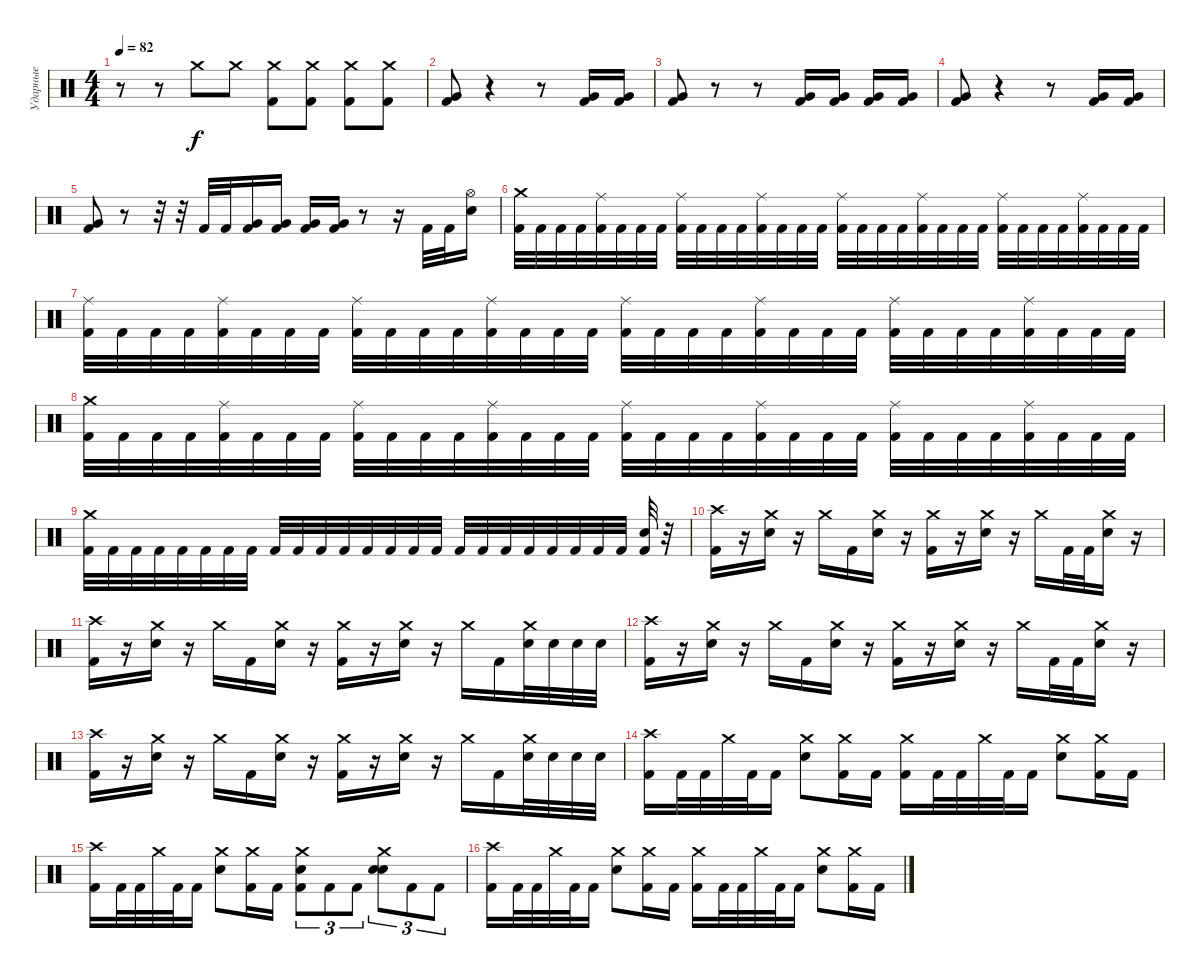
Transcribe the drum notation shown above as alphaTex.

\track ("Ударные" "Ударные") {instrument percussion}
\staff {score}
\articulation defaults
\ts (4 4)
\tempo 82
\clef neutral
\ks c
r.8{dy f} r.8 "Crash medium (hit)".8 "Crash medium (hit)".8 ("Kick (hit) 2" "Crash medium (hit)").8 ("Kick (hit) 2" "Crash medium (hit)").8 ("Kick (hit) 2" "Crash medium (hit)").8 ("Kick (hit) 2" "Crash medium (hit)").8 |
("Very Low Tom (hit)" "Kick (hit) 2").8 r.4 r.8 ("Very Low Tom (hit)" "Kick (hit) 2").16 ("Very Low Tom (hit)" "Kick (hit) 2").16 |
("Very Low Tom (hit)" "Kick (hit) 2").8 r.8 r.8 ("Very Low Tom (hit)" "Kick (hit) 2").16 ("Very Low Tom (hit)" "Kick (hit) 2").16 ("Very Low Tom (hit)" "Kick (hit) 2").16 ("Very Low Tom (hit)" "Kick (hit) 2").16 |
("Very Low Tom (hit)" "Kick (hit) 2").8 r.4 r.8 ("Very Low Tom (hit)" "Kick (hit) 2").16 ("Very Low Tom (hit)" "Kick (hit) 2").16 |
("Very Low Tom (hit)" "Kick (hit) 2").8 r.8 r.32 r.32 "Kick (hit) 2".32 "Kick (hit) 2".32 ("Very Low Tom (hit)" "Kick (hit) 2").16 ("Very Low Tom (hit)" "Kick (hit) 2").16 ("Very Low Tom (hit)" "Kick (hit) 2").16 ("Very Low Tom (hit)" "Kick (hit) 2").16 r.8 r.16 "Kick (hit) 2".32 "Kick (hit) 2".32 ("Hi-Hat (open)" "Electric Snare (hit)").16 |
("Crash medium (hit)" "Kick (hit) 2").32 "Kick (hit) 2".32 "Kick (hit) 2".32 "Kick (hit) 2".32 ("Ride (middle)" "Kick (hit) 2").32 "Kick (hit) 2".32 "Kick (hit) 2".32 "Kick (hit) 2".32 ("Ride (middle)" "Kick (hit) 2").32 "Kick (hit) 2".32 "Kick (hit) 2".32 "Kick (hit) 2".32 ("Ride (middle)" "Kick (hit) 2").32 "Kick (hit) 2".32 "Kick (hit) 2".32 "Kick (hit) 2".32 ("Ride (middle)" "Kick (hit) 2").32 "Kick (hit) 2".32 "Kick (hit) 2".32 "Kick (hit) 2".32 ("Ride (middle)" "Kick (hit) 2").32 "Kick (hit) 2".32 "Kick (hit) 2".32 "Kick (hit) 2".32 ("Ride (middle)" "Kick (hit) 2").32 "Kick (hit) 2".32 "Kick (hit) 2".32 "Kick (hit) 2".32 ("Ride (middle)" "Kick (hit) 2").32 "Kick (hit) 2".32 "Kick (hit) 2".32 "Kick (hit) 2".32 |
("Ride (middle)" "Kick (hit) 2").32 "Kick (hit) 2".32 "Kick (hit) 2".32 "Kick (hit) 2".32 ("Ride (middle)" "Kick (hit) 2").32 "Kick (hit) 2".32 "Kick (hit) 2".32 "Kick (hit) 2".32 ("Ride (middle)" "Kick (hit) 2").32 "Kick (hit) 2".32 "Kick (hit) 2".32 "Kick (hit) 2".32 ("Ride (middle)" "Kick (hit) 2").32 "Kick (hit) 2".32 "Kick (hit) 2".32 "Kick (hit) 2".32 ("Ride (middle)" "Kick (hit) 2").32 "Kick (hit) 2".32 "Kick (hit) 2".32 "Kick (hit) 2".32 ("Ride (middle)" "Kick (hit) 2").32 "Kick (hit) 2".32 "Kick (hit) 2".32 "Kick (hit) 2".32 ("Ride (middle)" "Kick (hit) 2").32 "Kick (hit) 2".32 "Kick (hit) 2".32 "Kick (hit) 2".32 ("Ride (middle)" "Kick (hit) 2").32 "Kick (hit) 2".32 "Kick (hit) 2".32 "Kick (hit) 2".32 |
("Crash medium (hit)" "Kick (hit) 2").32 "Kick (hit) 2".32 "Kick (hit) 2".32 "Kick (hit) 2".32 ("Ride (middle)" "Kick (hit) 2").32 "Kick (hit) 2".32 "Kick (hit) 2".32 "Kick (hit) 2".32 ("Ride (middle)" "Kick (hit) 2").32 "Kick (hit) 2".32 "Kick (hit) 2".32 "Kick (hit) 2".32 ("Ride (middle)" "Kick (hit) 2").32 "Kick (hit) 2".32 "Kick (hit) 2".32 "Kick (hit) 2".32 ("Ride (middle)" "Kick (hit) 2").32 "Kick (hit) 2".32 "Kick (hit) 2".32 "Kick (hit) 2".32 ("Ride (middle)" "Kick (hit) 2").32 "Kick (hit) 2".32 "Kick (hit) 2".32 "Kick (hit) 2".32 ("Ride (middle)" "Kick (hit) 2").32 "Kick (hit) 2".32 "Kick (hit) 2".32 "Kick (hit) 2".32 ("Ride (middle)" "Kick (hit) 2").32 "Kick (hit) 2".32 "Kick (hit) 2".32 "Kick (hit) 2".32 |
("Crash medium (hit)" "Kick (hit) 2").32 "Kick (hit) 2".32 "Kick (hit) 2".32 "Kick (hit) 2".32 "Kick (hit) 2".32 "Kick (hit) 2".32 "Kick (hit) 2".32 "Kick (hit) 2".32 "Kick (hit) 2".32 "Kick (hit) 2".32 "Kick (hit) 2".32 "Kick (hit) 2".32 "Kick (hit) 2".32 "Kick (hit) 2".32 "Kick (hit) 2".32 "Kick (hit) 2".32 "Kick (hit) 2".32 "Kick (hit) 2".32 "Kick (hit) 2".32 "Kick (hit) 2".32 "Kick (hit) 2".32 "Kick (hit) 2".32 "Kick (hit) 2".32 "Kick (hit) 2".32 ("Electric Snare (hit)" "Kick (hit) 2").32 r.32 |
("Crash high (hit)" "Kick (hit) 2").16 r.16 ("Crash medium (hit)" "Electric Snare (hit)").16 r.16 "Crash medium (hit)".16 "Kick (hit) 2".16 ("Crash medium (hit)" "Electric Snare (hit)").16 r.16 ("Crash medium (hit)" "Kick (hit) 2").16 r.16 ("Crash medium (hit)" "Electric Snare (hit)").16 r.16 "Crash medium (hit)".16 "Kick (hit) 2".32 "Kick (hit) 2".32 ("Crash medium (hit)" "Electric Snare (hit)").16 r.16 |
("Crash high (hit)" "Kick (hit) 2").16 r.16 ("Crash medium (hit)" "Electric Snare (hit)").16 r.16 "Crash medium (hit)".16 "Kick (hit) 2".16 ("Crash medium (hit)" "Electric Snare (hit)").16 r.16 ("Crash medium (hit)" "Kick (hit) 2").16 r.16 ("Crash medium (hit)" "Electric Snare (hit)").16 r.16 "Crash medium (hit)".16 "Kick (hit) 2".16 ("Crash medium (hit)" "Electric Snare (hit)").32 "Electric Snare (hit)".32 "Electric Snare (hit)".32 "Electric Snare (hit)".32 |
("Crash high (hit)" "Kick (hit) 2").16 r.16 ("Crash medium (hit)" "Electric Snare (hit)").16 r.16 "Crash medium (hit)".16 "Kick (hit) 2".16 ("Crash medium (hit)" "Electric Snare (hit)").16 r.16 ("Crash medium (hit)" "Kick (hit) 2").16 r.16 ("Crash medium (hit)" "Electric Snare (hit)").16 r.16 "Crash medium (hit)".16 "Kick (hit) 2".32 "Kick (hit) 2".32 ("Crash medium (hit)" "Electric Snare (hit)").16 r.16 |
("Crash high (hit)" "Kick (hit) 2").16 r.16 ("Crash medium (hit)" "Electric Snare (hit)").16 r.16 "Crash medium (hit)".16 "Kick (hit) 2".16 ("Crash medium (hit)" "Electric Snare (hit)").16 r.16 ("Crash medium (hit)" "Kick (hit) 2").16 r.16 ("Crash medium (hit)" "Electric Snare (hit)").16 r.16 "Crash medium (hit)".16 "Kick (hit) 2".16 ("Crash medium (hit)" "Electric Snare (hit)").32 "Electric Snare (hit)".32 "Electric Snare (hit)".32 "Electric Snare (hit)".32 |
("Crash high (hit)" "Kick (hit) 2").16 "Kick (hit) 2".32 "Kick (hit) 2".32 "Crash medium (hit)".32 "Kick (hit) 2".32 "Kick (hit) 2".16 ("Crash medium (hit)" "Electric Snare (hit)").8 ("Crash medium (hit)" "Kick (hit) 2").16 "Kick (hit) 2".16 ("Crash medium (hit)" "Kick (hit) 2").16 "Kick (hit) 2".32 "Kick (hit) 2".32 "Crash medium (hit)".32 "Kick (hit) 2".32 "Kick (hit) 2".16 ("Crash medium (hit)" "Electric Snare (hit)").8 ("Crash medium (hit)" "Kick (hit) 2").16 "Kick (hit) 2".16 |
("Crash high (hit)" "Kick (hit) 2").16 "Kick (hit) 2".32 "Kick (hit) 2".32 "Crash medium (hit)".32 "Kick (hit) 2".32 "Kick (hit) 2".16 ("Crash medium (hit)" "Electric Snare (hit)").8 ("Crash medium (hit)" "Kick (hit) 2").16 "Kick (hit) 2".16 ("Crash medium (hit)" "Electric Snare (hit)" "Kick (hit) 2").8{tu (3 2)} "Kick (hit) 2".8{tu (3 2)} "Kick (hit) 2".8{tu (3 2)} ("Crash medium (hit)" "Electric Snare (hit)" "Electric Snare (hit)").8{tu (3 2)} "Kick (hit) 2".8{tu (3 2)} "Kick (hit) 2".8{tu (3 2)} |
("Crash high (hit)" "Kick (hit) 2").16 "Kick (hit) 2".32 "Kick (hit) 2".32 "Crash medium (hit)".32 "Kick (hit) 2".32 "Kick (hit) 2".16 ("Crash medium (hit)" "Electric Snare (hit)").8 ("Crash medium (hit)" "Kick (hit) 2").16 "Kick (hit) 2".16 ("Crash medium (hit)" "Kick (hit) 2").16 "Kick (hit) 2".32 "Kick (hit) 2".32 "Crash medium (hit)".32 "Kick (hit) 2".32 "Kick (hit) 2".16 ("Crash medium (hit)" "Electric Snare (hit)").8 ("Crash medium (hit)" "Kick (hit) 2").16 "Kick (hit) 2".16
